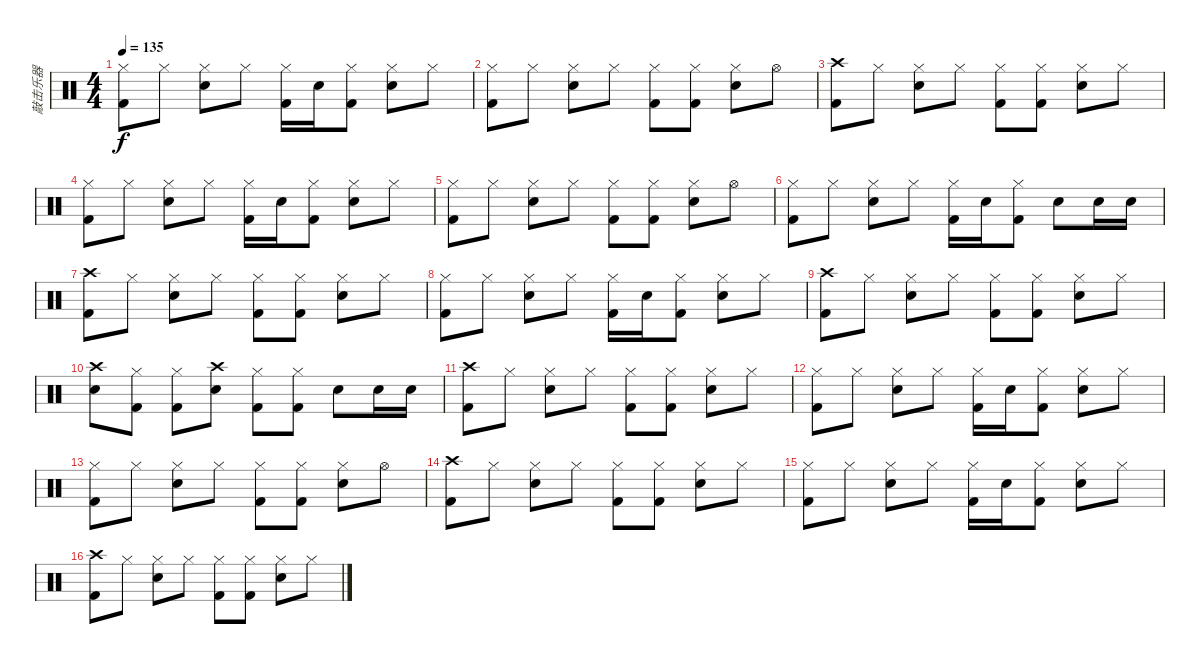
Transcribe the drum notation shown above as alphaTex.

\track ("敲击乐器" "敲击乐器") {instrument percussion}
\staff {score}
\articulation defaults
\ts (4 4)
\tempo 135
\clef neutral
\ks c
("Hi-Hat (closed)" "Kick (hit) 2").8{dy f} "Hi-Hat (closed)".8 ("Hi-Hat (closed)" "Electric Snare (hit)").8 "Hi-Hat (closed)".8 ("Hi-Hat (closed)" "Kick (hit) 2").16 "Electric Snare (hit)".16 ("Hi-Hat (closed)" "Kick (hit) 2").8 ("Hi-Hat (closed)" "Electric Snare (hit)").8 "Hi-Hat (closed)".8 |
("Hi-Hat (closed)" "Kick (hit) 2").8 "Hi-Hat (closed)".8 ("Hi-Hat (closed)" "Electric Snare (hit)").8 "Hi-Hat (closed)".8 ("Hi-Hat (closed)" "Kick (hit) 2").8 ("Hi-Hat (closed)" "Kick (hit) 2").8 ("Hi-Hat (closed)" "Electric Snare (hit)").8 "Hi-Hat (open)".8 |
("Crash high (hit)" "Kick (hit) 2").8 "Hi-Hat (closed)".8 ("Hi-Hat (closed)" "Electric Snare (hit)").8 "Hi-Hat (closed)".8 ("Hi-Hat (closed)" "Kick (hit) 2").8 ("Hi-Hat (closed)" "Kick (hit) 2").8 ("Hi-Hat (closed)" "Electric Snare (hit)").8 "Hi-Hat (closed)".8 |
("Hi-Hat (closed)" "Kick (hit) 2").8 "Hi-Hat (closed)".8 ("Hi-Hat (closed)" "Electric Snare (hit)").8 "Hi-Hat (closed)".8 ("Hi-Hat (closed)" "Kick (hit) 2").16 "Electric Snare (hit)".16 ("Hi-Hat (closed)" "Kick (hit) 2").8 ("Hi-Hat (closed)" "Electric Snare (hit)").8 "Hi-Hat (closed)".8 |
("Hi-Hat (closed)" "Kick (hit) 2").8 "Hi-Hat (closed)".8 ("Hi-Hat (closed)" "Electric Snare (hit)").8 "Hi-Hat (closed)".8 ("Hi-Hat (closed)" "Kick (hit) 2").8 ("Hi-Hat (closed)" "Kick (hit) 2").8 ("Hi-Hat (closed)" "Electric Snare (hit)").8 "Hi-Hat (open)".8 |
("Hi-Hat (closed)" "Kick (hit) 2").8 "Hi-Hat (closed)".8 ("Hi-Hat (closed)" "Electric Snare (hit)").8 "Hi-Hat (closed)".8 ("Hi-Hat (closed)" "Kick (hit) 2").16 "Electric Snare (hit)".16 ("Hi-Hat (closed)" "Kick (hit) 2").8 "Electric Snare (hit)".8 "Electric Snare (hit)".16 "Electric Snare (hit)".16 |
("Crash high (hit)" "Kick (hit) 2").8 "Hi-Hat (closed)".8 ("Hi-Hat (closed)" "Electric Snare (hit)").8 "Hi-Hat (closed)".8 ("Hi-Hat (closed)" "Kick (hit) 2").8 ("Hi-Hat (closed)" "Kick (hit) 2").8 ("Hi-Hat (closed)" "Electric Snare (hit)").8 "Hi-Hat (closed)".8 |
("Hi-Hat (closed)" "Kick (hit) 2").8 "Hi-Hat (closed)".8 ("Hi-Hat (closed)" "Electric Snare (hit)").8 "Hi-Hat (closed)".8 ("Hi-Hat (closed)" "Kick (hit) 2").16 "Electric Snare (hit)".16 ("Hi-Hat (closed)" "Kick (hit) 2").8 ("Hi-Hat (closed)" "Electric Snare (hit)").8 "Hi-Hat (closed)".8 |
("Crash high (hit)" "Kick (hit) 2").8 "Hi-Hat (closed)".8 ("Hi-Hat (closed)" "Electric Snare (hit)").8 "Hi-Hat (closed)".8 ("Hi-Hat (closed)" "Kick (hit) 2").8 ("Hi-Hat (closed)" "Kick (hit) 2").8 ("Hi-Hat (closed)" "Electric Snare (hit)").8 "Hi-Hat (closed)".8 |
("Crash high (hit)" "Electric Snare (hit)").8 ("Hi-Hat (closed)" "Kick (hit) 2").8 ("Hi-Hat (closed)" "Kick (hit) 2").8 ("Crash high (hit)" "Electric Snare (hit)").8 ("Hi-Hat (closed)" "Kick (hit) 2").8 ("Hi-Hat (closed)" "Kick (hit) 2").8 "Electric Snare (hit)".8 "Electric Snare (hit)".16 "Electric Snare (hit)".16 |
("Crash high (hit)" "Kick (hit) 2").8 "Hi-Hat (closed)".8 ("Hi-Hat (closed)" "Electric Snare (hit)").8 "Hi-Hat (closed)".8 ("Hi-Hat (closed)" "Kick (hit) 2").8 ("Hi-Hat (closed)" "Kick (hit) 2").8 ("Hi-Hat (closed)" "Electric Snare (hit)").8 "Hi-Hat (closed)".8 |
("Hi-Hat (closed)" "Kick (hit) 2").8 "Hi-Hat (closed)".8 ("Hi-Hat (closed)" "Electric Snare (hit)").8 "Hi-Hat (closed)".8 ("Hi-Hat (closed)" "Kick (hit) 2").16 "Electric Snare (hit)".16 ("Hi-Hat (closed)" "Kick (hit) 2").8 ("Hi-Hat (closed)" "Electric Snare (hit)").8 "Hi-Hat (closed)".8 |
("Hi-Hat (closed)" "Kick (hit) 2").8 "Hi-Hat (closed)".8 ("Hi-Hat (closed)" "Electric Snare (hit)").8 "Hi-Hat (closed)".8 ("Hi-Hat (closed)" "Kick (hit) 2").8 ("Hi-Hat (closed)" "Kick (hit) 2").8 ("Hi-Hat (closed)" "Electric Snare (hit)").8 "Hi-Hat (open)".8 |
("Crash high (hit)" "Kick (hit) 2").8 "Hi-Hat (closed)".8 ("Hi-Hat (closed)" "Electric Snare (hit)").8 "Hi-Hat (closed)".8 ("Hi-Hat (closed)" "Kick (hit) 2").8 ("Hi-Hat (closed)" "Kick (hit) 2").8 ("Hi-Hat (closed)" "Electric Snare (hit)").8 "Hi-Hat (closed)".8 |
("Hi-Hat (closed)" "Kick (hit) 2").8 "Hi-Hat (closed)".8 ("Hi-Hat (closed)" "Electric Snare (hit)").8 "Hi-Hat (closed)".8 ("Hi-Hat (closed)" "Kick (hit) 2").16 "Electric Snare (hit)".16 ("Hi-Hat (closed)" "Kick (hit) 2").8 ("Hi-Hat (closed)" "Electric Snare (hit)").8 "Hi-Hat (closed)".8 |
("Crash high (hit)" "Kick (hit) 2").8 "Hi-Hat (closed)".8 ("Hi-Hat (closed)" "Electric Snare (hit)").8 "Hi-Hat (closed)".8 ("Hi-Hat (closed)" "Kick (hit) 2").8 ("Hi-Hat (closed)" "Kick (hit) 2").8 ("Hi-Hat (closed)" "Electric Snare (hit)").8 "Hi-Hat (closed)".8
